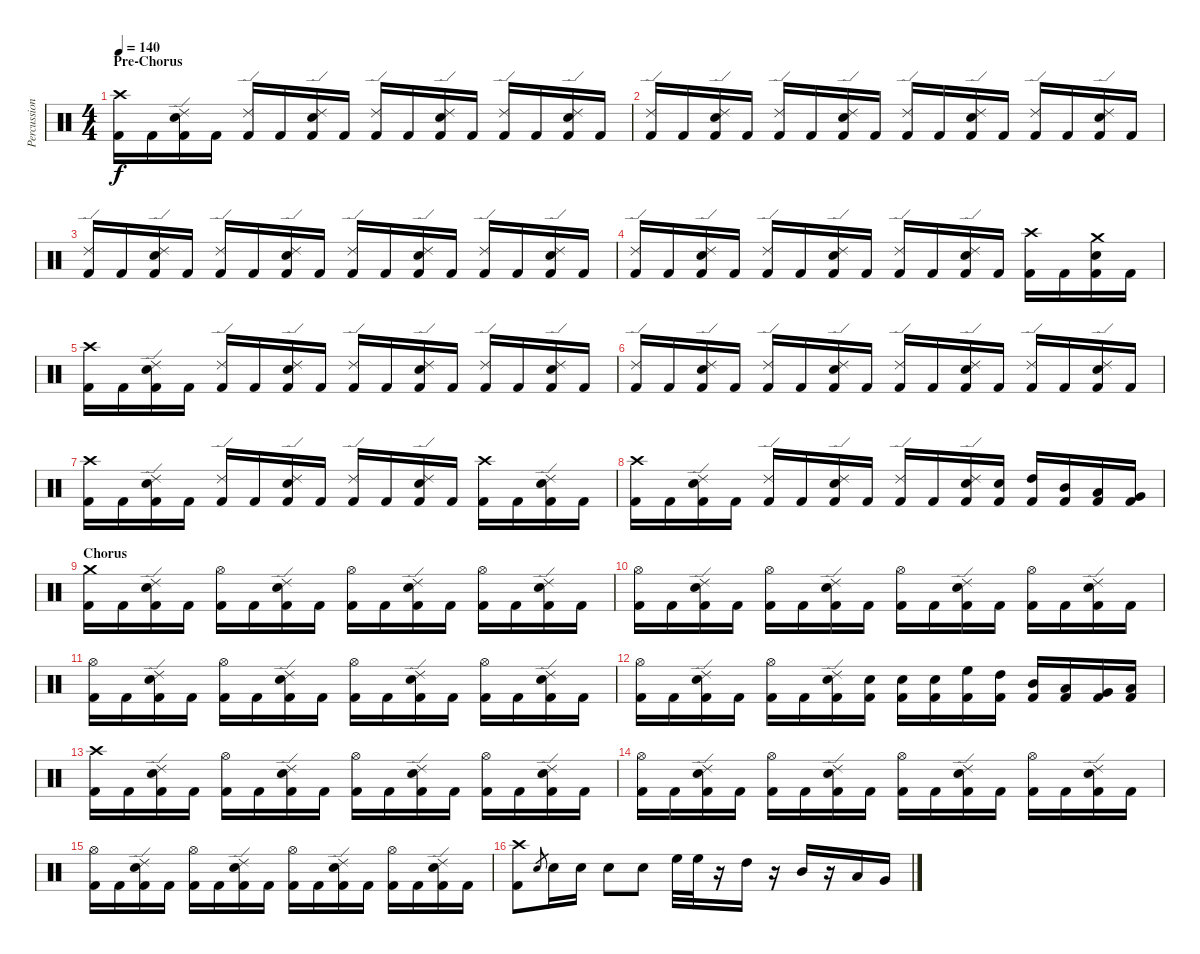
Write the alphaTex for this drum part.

\track ("Percussion" "Percussion") {instrument percussion}
\staff {score}
\articulation defaults
\ts (4 4)
\section ("" "Pre-Chorus")
\tempo 140
\clef neutral
\ks c
("Crash high (hit)" "Kick (hit) 2").16{dy f} "Kick (hit) 2".16 ("Ride (edge) 2" "Electric Snare (hit)" "Kick (hit) 2").16 "Kick (hit) 2".16 ("Ride (edge) 2" "Kick (hit) 2").16 "Kick (hit) 2".16 ("Ride (edge) 2" "Electric Snare (hit)" "Kick (hit) 2").16 "Kick (hit) 2".16 ("Ride (edge) 2" "Kick (hit) 2").16 "Kick (hit) 2".16 ("Ride (edge) 2" "Electric Snare (hit)" "Kick (hit) 2").16 "Kick (hit) 2".16 ("Ride (edge) 2" "Kick (hit) 2").16 "Kick (hit) 2".16 ("Ride (edge) 2" "Electric Snare (hit)" "Kick (hit) 2").16 "Kick (hit) 2".16 |
("Ride (edge) 2" "Kick (hit) 2").16 "Kick (hit) 2".16 ("Ride (edge) 2" "Electric Snare (hit)" "Kick (hit) 2").16 "Kick (hit) 2".16 ("Ride (edge) 2" "Kick (hit) 2").16 "Kick (hit) 2".16 ("Ride (edge) 2" "Electric Snare (hit)" "Kick (hit) 2").16 "Kick (hit) 2".16 ("Ride (edge) 2" "Kick (hit) 2").16 "Kick (hit) 2".16 ("Ride (edge) 2" "Electric Snare (hit)" "Kick (hit) 2").16 "Kick (hit) 2".16 ("Ride (edge) 2" "Kick (hit) 2").16 "Kick (hit) 2".16 ("Ride (edge) 2" "Electric Snare (hit)" "Kick (hit) 2").16 "Kick (hit) 2".16 |
("Ride (edge) 2" "Kick (hit) 2").16 "Kick (hit) 2".16 ("Ride (edge) 2" "Electric Snare (hit)" "Kick (hit) 2").16 "Kick (hit) 2".16 ("Ride (edge) 2" "Kick (hit) 2").16 "Kick (hit) 2".16 ("Ride (edge) 2" "Electric Snare (hit)" "Kick (hit) 2").16 "Kick (hit) 2".16 ("Ride (edge) 2" "Kick (hit) 2").16 "Kick (hit) 2".16 ("Ride (edge) 2" "Electric Snare (hit)" "Kick (hit) 2").16 "Kick (hit) 2".16 ("Ride (edge) 2" "Kick (hit) 2").16 "Kick (hit) 2".16 ("Ride (edge) 2" "Electric Snare (hit)" "Kick (hit) 2").16 "Kick (hit) 2".16 |
("Ride (edge) 2" "Kick (hit) 2").16 "Kick (hit) 2".16 ("Ride (edge) 2" "Electric Snare (hit)" "Kick (hit) 2").16 "Kick (hit) 2".16 ("Ride (edge) 2" "Kick (hit) 2").16 "Kick (hit) 2".16 ("Ride (edge) 2" "Electric Snare (hit)" "Kick (hit) 2").16 "Kick (hit) 2".16 ("Ride (edge) 2" "Kick (hit) 2").16 "Kick (hit) 2".16 ("Ride (edge) 2" "Electric Snare (hit)" "Kick (hit) 2").16 "Kick (hit) 2".16 ("Crash high (hit)" "Kick (hit) 2").16 "Kick (hit) 2".16 ("Crash medium (hit)" "Electric Snare (hit)" "Kick (hit) 2").16 "Kick (hit) 2".16 |
("Crash high (hit)" "Kick (hit) 2").16 "Kick (hit) 2".16 ("Ride (edge) 2" "Electric Snare (hit)" "Kick (hit) 2").16 "Kick (hit) 2".16 ("Ride (edge) 2" "Kick (hit) 2").16 "Kick (hit) 2".16 ("Ride (edge) 2" "Electric Snare (hit)" "Kick (hit) 2").16 "Kick (hit) 2".16 ("Ride (edge) 2" "Kick (hit) 2").16 "Kick (hit) 2".16 ("Ride (edge) 2" "Electric Snare (hit)" "Kick (hit) 2").16 "Kick (hit) 2".16 ("Ride (edge) 2" "Kick (hit) 2").16 "Kick (hit) 2".16 ("Ride (edge) 2" "Electric Snare (hit)" "Kick (hit) 2").16 "Kick (hit) 2".16 |
("Ride (edge) 2" "Kick (hit) 2").16 "Kick (hit) 2".16 ("Ride (edge) 2" "Electric Snare (hit)" "Kick (hit) 2").16 "Kick (hit) 2".16 ("Ride (edge) 2" "Kick (hit) 2").16 "Kick (hit) 2".16 ("Ride (edge) 2" "Electric Snare (hit)" "Kick (hit) 2").16 "Kick (hit) 2".16 ("Ride (edge) 2" "Kick (hit) 2").16 "Kick (hit) 2".16 ("Ride (edge) 2" "Electric Snare (hit)" "Kick (hit) 2").16 "Kick (hit) 2".16 ("Ride (edge) 2" "Kick (hit) 2").16 "Kick (hit) 2".16 ("Ride (edge) 2" "Electric Snare (hit)" "Kick (hit) 2").16 "Kick (hit) 2".16 |
("Crash high (hit)" "Kick (hit) 2").16 "Kick (hit) 2".16 ("Ride (edge) 2" "Electric Snare (hit)" "Kick (hit) 2").16 "Kick (hit) 2".16 ("Ride (edge) 2" "Kick (hit) 2").16 "Kick (hit) 2".16 ("Ride (edge) 2" "Electric Snare (hit)" "Kick (hit) 2").16 "Kick (hit) 2".16 ("Ride (edge) 2" "Kick (hit) 2").16 "Kick (hit) 2".16 ("Ride (edge) 2" "Electric Snare (hit)" "Kick (hit) 2").16 "Kick (hit) 2".16 ("Crash high (hit)" "Kick (hit) 2").16 "Kick (hit) 2".16 ("Ride (edge) 2" "Electric Snare (hit)" "Kick (hit) 2").16 "Kick (hit) 2".16 |
("Crash high (hit)" "Kick (hit) 2").16 "Kick (hit) 2".16 ("Ride (edge) 2" "Electric Snare (hit)" "Kick (hit) 2").16 "Kick (hit) 2".16 ("Ride (edge) 2" "Kick (hit) 2").16 "Kick (hit) 2".16 ("Ride (edge) 2" "Electric Snare (hit)" "Kick (hit) 2").16 "Kick (hit) 2".16 ("Ride (edge) 2" "Kick (hit) 2").16 "Kick (hit) 2".16 ("Ride (edge) 2" "Electric Snare (hit)" "Kick (hit) 2").16 ("Electric Snare (hit)" "Kick (hit) 2").16 ("High Tom (hit)" "Kick (hit) 2").16 ("Mid Tom (hit)" "Kick (hit) 2").16 ("Low Tom (hit)" "Kick (hit) 2").16 ("Very Low Tom (hit)" "Kick (hit) 2").16 |
\section ("" "Chorus")
("Crash medium (hit)" "Kick (hit) 2").16 "Kick (hit) 2".16 ("Ride (edge) 2" "Electric Snare (hit)" "Kick (hit) 2").16 "Kick (hit) 2".16 ("Hi-Hat (open)" "Kick (hit) 2").16 "Kick (hit) 2".16 ("Ride (edge) 2" "Electric Snare (hit)" "Kick (hit) 2").16 "Kick (hit) 2".16 ("Hi-Hat (open)" "Kick (hit) 2").16 "Kick (hit) 2".16 ("Ride (edge) 2" "Electric Snare (hit)" "Kick (hit) 2").16 "Kick (hit) 2".16 ("Hi-Hat (open)" "Kick (hit) 2").16 "Kick (hit) 2".16 ("Ride (edge) 2" "Electric Snare (hit)" "Kick (hit) 2").16 "Kick (hit) 2".16 |
("Hi-Hat (open)" "Kick (hit) 2").16 "Kick (hit) 2".16 ("Ride (edge) 2" "Electric Snare (hit)" "Kick (hit) 2").16 "Kick (hit) 2".16 ("Hi-Hat (open)" "Kick (hit) 2").16 "Kick (hit) 2".16 ("Ride (edge) 2" "Electric Snare (hit)" "Kick (hit) 2").16 "Kick (hit) 2".16 ("Hi-Hat (open)" "Kick (hit) 2").16 "Kick (hit) 2".16 ("Ride (edge) 2" "Electric Snare (hit)" "Kick (hit) 2").16 "Kick (hit) 2".16 ("Hi-Hat (open)" "Kick (hit) 2").16 "Kick (hit) 2".16 ("Ride (edge) 2" "Electric Snare (hit)" "Kick (hit) 2").16 "Kick (hit) 2".16 |
("Hi-Hat (open)" "Kick (hit) 2").16 "Kick (hit) 2".16 ("Ride (edge) 2" "Electric Snare (hit)" "Kick (hit) 2").16 "Kick (hit) 2".16 ("Hi-Hat (open)" "Kick (hit) 2").16 "Kick (hit) 2".16 ("Ride (edge) 2" "Electric Snare (hit)" "Kick (hit) 2").16 "Kick (hit) 2".16 ("Hi-Hat (open)" "Kick (hit) 2").16 "Kick (hit) 2".16 ("Ride (edge) 2" "Electric Snare (hit)" "Kick (hit) 2").16 "Kick (hit) 2".16 ("Hi-Hat (open)" "Kick (hit) 2").16 "Kick (hit) 2".16 ("Ride (edge) 2" "Electric Snare (hit)" "Kick (hit) 2").16 "Kick (hit) 2".16 |
("Hi-Hat (open)" "Kick (hit) 2").16 "Kick (hit) 2".16 ("Ride (edge) 2" "Electric Snare (hit)" "Kick (hit) 2").16 "Kick (hit) 2".16 ("Hi-Hat (open)" "Kick (hit) 2").16 "Kick (hit) 2".16 ("Ride (edge) 2" "Electric Snare (hit)" "Kick (hit) 2").16 ("Electric Snare (hit)" "Kick (hit) 2").16 ("Electric Snare (hit)" "Kick (hit) 2").16 ("Electric Snare (hit)" "Kick (hit) 2").16 ("High Floor Tom (hit)" "Kick (hit) 2").16 ("High Tom (hit)" "Kick (hit) 2").16 ("Mid Tom (hit)" "Kick (hit) 2").16 ("Low Tom (hit)" "Kick (hit) 2").16 ("Very Low Tom (hit)" "Kick (hit) 2").16 ("Low Floor Tom (hit)" "Kick (hit) 2").16 |
("Crash high (hit)" "Kick (hit) 2").16 "Kick (hit) 2".16 ("Ride (edge) 2" "Electric Snare (hit)" "Kick (hit) 2").16 "Kick (hit) 2".16 ("Hi-Hat (open)" "Kick (hit) 2").16 "Kick (hit) 2".16 ("Ride (edge) 2" "Electric Snare (hit)" "Kick (hit) 2").16 "Kick (hit) 2".16 ("Hi-Hat (open)" "Kick (hit) 2").16 "Kick (hit) 2".16 ("Ride (edge) 2" "Electric Snare (hit)" "Kick (hit) 2").16 "Kick (hit) 2".16 ("Hi-Hat (open)" "Kick (hit) 2").16 "Kick (hit) 2".16 ("Ride (edge) 2" "Electric Snare (hit)" "Kick (hit) 2").16 "Kick (hit) 2".16 |
("Hi-Hat (open)" "Kick (hit) 2").16 "Kick (hit) 2".16 ("Ride (edge) 2" "Electric Snare (hit)" "Kick (hit) 2").16 "Kick (hit) 2".16 ("Hi-Hat (open)" "Kick (hit) 2").16 "Kick (hit) 2".16 ("Ride (edge) 2" "Electric Snare (hit)" "Kick (hit) 2").16 "Kick (hit) 2".16 ("Hi-Hat (open)" "Kick (hit) 2").16 "Kick (hit) 2".16 ("Ride (edge) 2" "Electric Snare (hit)" "Kick (hit) 2").16 "Kick (hit) 2".16 ("Hi-Hat (open)" "Kick (hit) 2").16 "Kick (hit) 2".16 ("Ride (edge) 2" "Electric Snare (hit)" "Kick (hit) 2").16 "Kick (hit) 2".16 |
("Hi-Hat (open)" "Kick (hit) 2").16 "Kick (hit) 2".16 ("Ride (edge) 2" "Electric Snare (hit)" "Kick (hit) 2").16 "Kick (hit) 2".16 ("Hi-Hat (open)" "Kick (hit) 2").16 "Kick (hit) 2".16 ("Ride (edge) 2" "Electric Snare (hit)" "Kick (hit) 2").16 "Kick (hit) 2".16 ("Hi-Hat (open)" "Kick (hit) 2").16 "Kick (hit) 2".16 ("Ride (edge) 2" "Electric Snare (hit)" "Kick (hit) 2").16 "Kick (hit) 2".16 ("Hi-Hat (open)" "Kick (hit) 2").16 "Kick (hit) 2".16 ("Ride (edge) 2" "Electric Snare (hit)" "Kick (hit) 2").16 "Kick (hit) 2".16 |
("Crash high (hit)" "Kick (hit) 2").8 "Electric Snare (hit)".8{gr} "Electric Snare (hit)".16 "Electric Snare (hit)".16 "Electric Snare (hit)".8 "Electric Snare (hit)".8 "High Floor Tom (hit)".32 "High Floor Tom (hit)".32 r.16 "High Tom (hit)".16 r.16 "Mid Tom (hit)".16 r.16 "Low Tom (hit)".16 "Very Low Tom (hit)".16
